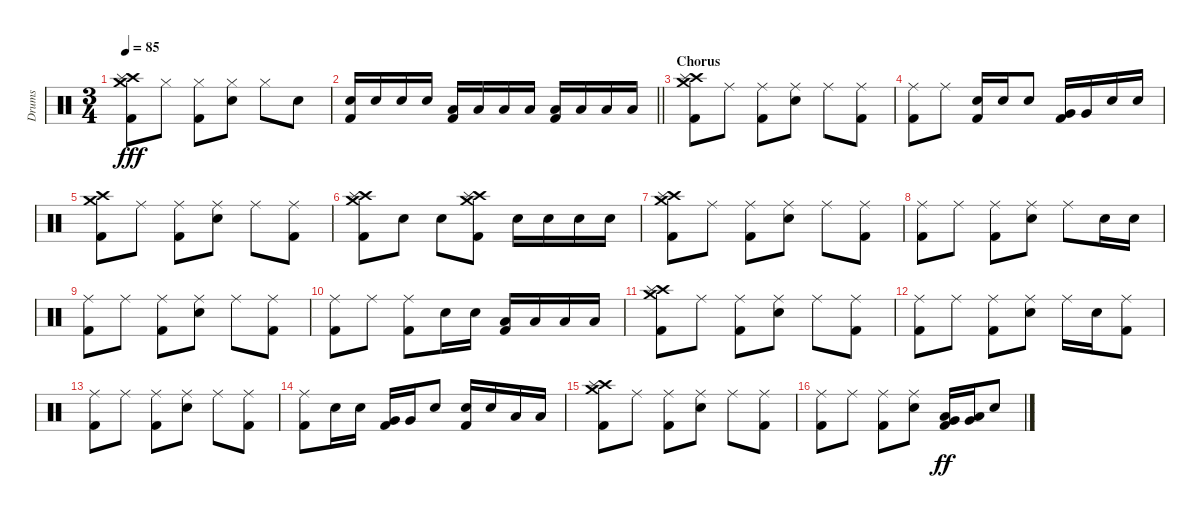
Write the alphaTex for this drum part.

\track ("Drums" "Drums") {instrument percussion}
\staff {score}
\articulation defaults
\ts (3 4)
\tempo 85
\clef neutral
\ks c
("Crash high (hit)" "Crash medium (hit)" "Splash (hit)" "Kick (hit) 2").8{dy fff} "Hi-Hat (closed)".8 ("Hi-Hat (closed)" "Kick (hit) 2").8 ("Hi-Hat (closed)" "Electric Snare (hit)").8 "Hi-Hat (closed)".8 "Electric Snare (hit)".8 |
\barLineRight lightlight
("Electric Snare (hit)" "Kick (hit) 2").16 "Electric Snare (hit)".16 "Electric Snare (hit)".16 "Electric Snare (hit)".16 ("Low Floor Tom (hit)" "Kick (hit) 2").16 "Low Tom (hit)".16 "Low Floor Tom (hit)".16 "Low Floor Tom (hit)".16 ("Low Tom (hit)" "Kick (hit) 2").16 "Low Floor Tom (hit)".16 "Low Tom (hit)".16 "Low Tom (hit)".16 |
\section ("" "Chorus")
("Crash high (hit)" "Crash medium (hit)" "Splash (hit)" "Kick (hit) 2").8 "Ride (middle)".8 ("Ride (middle)" "Kick (hit) 2").8 ("Ride (middle)" "Electric Snare (hit)").8 "Ride (middle)".8 ("Ride (middle)" "Kick (hit) 2").8 |
("Ride (middle)" "Kick (hit) 2").8 "Ride (middle)".8 ("Electric Snare (hit)" "Kick (hit) 2").16 "Electric Snare (hit)".16 "Electric Snare (hit)".8 ("Very Low Tom (hit)" "Kick (hit) 2").16 "Very Low Tom (hit)".16 "Electric Snare (hit)".16 "Electric Snare (hit)".16 |
("Crash high (hit)" "Crash medium (hit)" "Kick (hit) 2").8 "Ride (middle)".8 ("Ride (middle)" "Kick (hit) 2").8 ("Ride (middle)" "Electric Snare (hit)").8 "Ride (middle)".8 ("Ride (middle)" "Kick (hit) 2").8 |
("Crash high (hit)" "Crash medium (hit)" "Splash (hit)" "Kick (hit) 2").8 "Electric Snare (hit)".8 "Electric Snare (hit)".8 ("Crash high (hit)" "Crash medium (hit)" "Splash (hit)" "Kick (hit) 2").8 "Electric Snare (hit)".16 "Electric Snare (hit)".16 "Electric Snare (hit)".16 "Electric Snare (hit)".16 |
("Crash high (hit)" "Crash medium (hit)" "Splash (hit)" "Kick (hit) 2").8 "Ride (middle)".8 ("Ride (middle)" "Kick (hit) 2").8 ("Ride (middle)" "Electric Snare (hit)").8 "Ride (middle)".8 ("Ride (middle)" "Kick (hit) 2").8 |
("Ride (middle)" "Kick (hit) 2").8 "Ride (middle)".8 ("Ride (middle)" "Kick (hit) 2").8 ("Ride (middle)" "Electric Snare (hit)").8 "Ride (middle)".8 "Electric Snare (hit)".16 "Electric Snare (hit)".16 |
("Ride (middle)" "Kick (hit) 2").8 "Ride (middle)".8 ("Ride (middle)" "Kick (hit) 2").8 ("Ride (middle)" "Electric Snare (hit)").8 "Ride (middle)".8 ("Ride (middle)" "Kick (hit) 2").8 |
("Ride (middle)" "Kick (hit) 2").8 "Ride (middle)".8 ("Ride (middle)" "Kick (hit) 2").8 "Electric Snare (hit)".16 "Electric Snare (hit)".16 ("Low Tom (hit)" "Kick (hit) 2").16 "Low Tom (hit)".16 "Low Tom (hit)".16 "Low Tom (hit)".16 |
("Crash high (hit)" "Crash medium (hit)" "Splash (hit)" "Kick (hit) 2").8 "Ride (middle)".8 ("Ride (middle)" "Kick (hit) 2").8 ("Ride (middle)" "Electric Snare (hit)").8 "Ride (middle)".8 ("Ride (middle)" "Kick (hit) 2").8 |
("Ride (middle)" "Kick (hit) 2").8 "Ride (middle)".8 ("Ride (middle)" "Kick (hit) 2").8 ("Ride (middle)" "Electric Snare (hit)").8 "Ride (middle)".16 "Electric Snare (hit)".16 ("Ride (middle)" "Kick (hit) 2").8 |
("Ride (middle)" "Kick (hit) 2").8 "Ride (middle)".8 ("Ride (middle)" "Kick (hit) 2").8 ("Ride (middle)" "Electric Snare (hit)").8 "Ride (middle)".8 ("Ride (middle)" "Kick (hit) 2").8 |
("Ride (middle)" "Kick (hit) 2").8 "Electric Snare (hit)".16 "Electric Snare (hit)".16 ("Very Low Tom (hit)" "Kick (hit) 2").16 "Very Low Tom (hit)".16 "Electric Snare (hit)".8 ("Electric Snare (hit)" "Kick (hit) 2").16 "Electric Snare (hit)".16 "Low Floor Tom (hit)".16 "Low Floor Tom (hit)".16 |
("Crash high (hit)" "Crash medium (hit)" "Splash (hit)" "Kick (hit) 2").8 "Ride (middle)".8 ("Ride (middle)" "Kick (hit) 2").8 ("Ride (middle)" "Electric Snare (hit)").8 "Ride (middle)".8 ("Ride (middle)" "Kick (hit) 2").8 |
("Ride (middle)" "Kick (hit) 2").8 "Ride (middle)".8 ("Ride (middle)" "Kick (hit) 2").8 ("Ride (middle)" "Electric Snare (hit)").8 ("Low Tom (hit)" "Very Low Tom (hit)" "Kick (hit) 2").16{dy ff} ("Low Tom (hit)" "Very Low Tom (hit)").16 "Electric Snare (hit)".8
